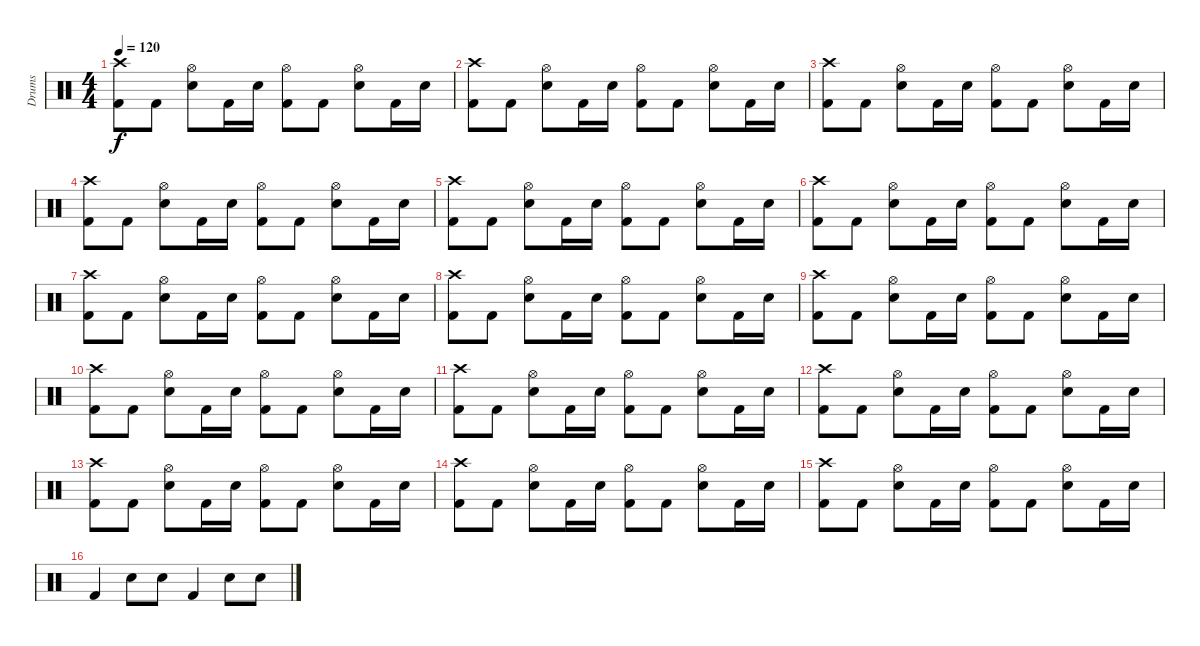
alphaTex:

\track ("Drums" "Drums") {instrument percussion}
\staff {score}
\articulation defaults
\ts (4 4)
\tempo 120
\clef neutral
\ks c
("Crash high (hit)" "Kick (hit) 2").8{dy f} "Kick (hit) 2".8 ("Hi-Hat (open)" "Electric Snare (hit)").8 "Kick (hit) 2".16 "Electric Snare (hit)".16 ("Hi-Hat (open)" "Kick (hit) 2").8 "Kick (hit) 2".8 ("Hi-Hat (open)" "Electric Snare (hit)").8 "Kick (hit) 2".16 "Electric Snare (hit)".16 |
("Crash high (hit)" "Kick (hit) 2").8 "Kick (hit) 2".8 ("Hi-Hat (open)" "Electric Snare (hit)").8 "Kick (hit) 2".16 "Electric Snare (hit)".16 ("Hi-Hat (open)" "Kick (hit) 2").8 "Kick (hit) 2".8 ("Hi-Hat (open)" "Electric Snare (hit)").8 "Kick (hit) 2".16 "Electric Snare (hit)".16 |
("Crash high (hit)" "Kick (hit) 2").8 "Kick (hit) 2".8 ("Hi-Hat (open)" "Electric Snare (hit)").8 "Kick (hit) 2".16 "Electric Snare (hit)".16 ("Hi-Hat (open)" "Kick (hit) 2").8 "Kick (hit) 2".8 ("Hi-Hat (open)" "Electric Snare (hit)").8 "Kick (hit) 2".16 "Electric Snare (hit)".16 |
("Crash high (hit)" "Kick (hit) 2").8 "Kick (hit) 2".8 ("Hi-Hat (open)" "Electric Snare (hit)").8 "Kick (hit) 2".16 "Electric Snare (hit)".16 ("Hi-Hat (open)" "Kick (hit) 2").8 "Kick (hit) 2".8 ("Hi-Hat (open)" "Electric Snare (hit)").8 "Kick (hit) 2".16 "Electric Snare (hit)".16 |
("Crash high (hit)" "Kick (hit) 2").8 "Kick (hit) 2".8 ("Hi-Hat (open)" "Electric Snare (hit)").8 "Kick (hit) 2".16 "Electric Snare (hit)".16 ("Hi-Hat (open)" "Kick (hit) 2").8 "Kick (hit) 2".8 ("Hi-Hat (open)" "Electric Snare (hit)").8 "Kick (hit) 2".16 "Electric Snare (hit)".16 |
("Crash high (hit)" "Kick (hit) 2").8 "Kick (hit) 2".8 ("Hi-Hat (open)" "Electric Snare (hit)").8 "Kick (hit) 2".16 "Electric Snare (hit)".16 ("Hi-Hat (open)" "Kick (hit) 2").8 "Kick (hit) 2".8 ("Hi-Hat (open)" "Electric Snare (hit)").8 "Kick (hit) 2".16 "Electric Snare (hit)".16 |
("Crash high (hit)" "Kick (hit) 2").8 "Kick (hit) 2".8 ("Hi-Hat (open)" "Electric Snare (hit)").8 "Kick (hit) 2".16 "Electric Snare (hit)".16 ("Hi-Hat (open)" "Kick (hit) 2").8 "Kick (hit) 2".8 ("Hi-Hat (open)" "Electric Snare (hit)").8 "Kick (hit) 2".16 "Electric Snare (hit)".16 |
("Crash high (hit)" "Kick (hit) 2").8 "Kick (hit) 2".8 ("Hi-Hat (open)" "Electric Snare (hit)").8 "Kick (hit) 2".16 "Electric Snare (hit)".16 ("Hi-Hat (open)" "Kick (hit) 2").8 "Kick (hit) 2".8 ("Hi-Hat (open)" "Electric Snare (hit)").8 "Kick (hit) 2".16 "Electric Snare (hit)".16 |
("Crash high (hit)" "Kick (hit) 2").8 "Kick (hit) 2".8 ("Hi-Hat (open)" "Electric Snare (hit)").8 "Kick (hit) 2".16 "Electric Snare (hit)".16 ("Hi-Hat (open)" "Kick (hit) 2").8 "Kick (hit) 2".8 ("Hi-Hat (open)" "Electric Snare (hit)").8 "Kick (hit) 2".16 "Electric Snare (hit)".16 |
("Crash high (hit)" "Kick (hit) 2").8 "Kick (hit) 2".8 ("Hi-Hat (open)" "Electric Snare (hit)").8 "Kick (hit) 2".16 "Electric Snare (hit)".16 ("Hi-Hat (open)" "Kick (hit) 2").8 "Kick (hit) 2".8 ("Hi-Hat (open)" "Electric Snare (hit)").8 "Kick (hit) 2".16 "Electric Snare (hit)".16 |
("Crash high (hit)" "Kick (hit) 2").8 "Kick (hit) 2".8 ("Hi-Hat (open)" "Electric Snare (hit)").8 "Kick (hit) 2".16 "Electric Snare (hit)".16 ("Hi-Hat (open)" "Kick (hit) 2").8 "Kick (hit) 2".8 ("Hi-Hat (open)" "Electric Snare (hit)").8 "Kick (hit) 2".16 "Electric Snare (hit)".16 |
("Crash high (hit)" "Kick (hit) 2").8 "Kick (hit) 2".8 ("Hi-Hat (open)" "Electric Snare (hit)").8 "Kick (hit) 2".16 "Electric Snare (hit)".16 ("Hi-Hat (open)" "Kick (hit) 2").8 "Kick (hit) 2".8 ("Hi-Hat (open)" "Electric Snare (hit)").8 "Kick (hit) 2".16 "Electric Snare (hit)".16 |
("Crash high (hit)" "Kick (hit) 2").8 "Kick (hit) 2".8 ("Hi-Hat (open)" "Electric Snare (hit)").8 "Kick (hit) 2".16 "Electric Snare (hit)".16 ("Hi-Hat (open)" "Kick (hit) 2").8 "Kick (hit) 2".8 ("Hi-Hat (open)" "Electric Snare (hit)").8 "Kick (hit) 2".16 "Electric Snare (hit)".16 |
("Crash high (hit)" "Kick (hit) 2").8 "Kick (hit) 2".8 ("Hi-Hat (open)" "Electric Snare (hit)").8 "Kick (hit) 2".16 "Electric Snare (hit)".16 ("Hi-Hat (open)" "Kick (hit) 2").8 "Kick (hit) 2".8 ("Hi-Hat (open)" "Electric Snare (hit)").8 "Kick (hit) 2".16 "Electric Snare (hit)".16 |
("Crash high (hit)" "Kick (hit) 2").8 "Kick (hit) 2".8 ("Hi-Hat (open)" "Electric Snare (hit)").8 "Kick (hit) 2".16 "Electric Snare (hit)".16 ("Hi-Hat (open)" "Kick (hit) 2").8 "Kick (hit) 2".8 ("Hi-Hat (open)" "Electric Snare (hit)").8 "Kick (hit) 2".16 "Electric Snare (hit)".16 |
"Kick (hit) 2".4 "Electric Snare (hit)".8 "Electric Snare (hit)".8 "Kick (hit) 2".4 "Electric Snare (hit)".8 "Electric Snare (hit)".8
